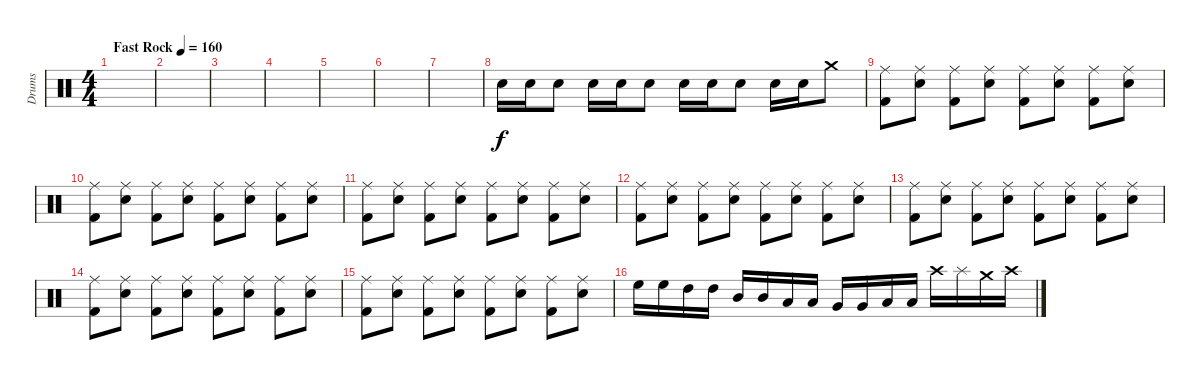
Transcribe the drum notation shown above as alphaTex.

\track ("Drums" "Drums") {instrument percussion}
\staff {score}
\articulation defaults
\ts (4 4)
\tempo (160 "Fast Rock")
\clef neutral
\ks c
|
|
|
|
|
|
|
"Electric Snare (hit)".16 "Electric Snare (hit)".16 "Electric Snare (hit)".8 "Electric Snare (hit)".16 "Electric Snare (hit)".16 "Electric Snare (hit)".8 "Electric Snare (hit)".16 "Electric Snare (hit)".16 "Electric Snare (hit)".8 "Electric Snare (hit)".16 "Electric Snare (hit)".16 "Crash medium (hit)".8 |
("Ride (middle)" "Kick (hit) 2").8 ("Ride (middle)" "Electric Snare (hit)").8 ("Ride (middle)" "Kick (hit) 2").8 ("Ride (middle)" "Electric Snare (hit)").8 ("Ride (middle)" "Kick (hit) 2").8 ("Ride (middle)" "Electric Snare (hit)").8 ("Ride (middle)" "Kick (hit) 2").8 ("Ride (middle)" "Electric Snare (hit)").8 |
("Ride (middle)" "Kick (hit) 2").8 ("Ride (middle)" "Electric Snare (hit)").8 ("Ride (middle)" "Kick (hit) 2").8 ("Ride (middle)" "Electric Snare (hit)").8 ("Ride (middle)" "Kick (hit) 2").8 ("Ride (middle)" "Electric Snare (hit)").8 ("Ride (middle)" "Kick (hit) 2").8 ("Ride (middle)" "Electric Snare (hit)").8 |
("Ride (middle)" "Kick (hit) 2").8 ("Ride (middle)" "Electric Snare (hit)").8 ("Ride (middle)" "Kick (hit) 2").8 ("Ride (middle)" "Electric Snare (hit)").8 ("Ride (middle)" "Kick (hit) 2").8 ("Ride (middle)" "Electric Snare (hit)").8 ("Ride (middle)" "Kick (hit) 2").8 ("Ride (middle)" "Electric Snare (hit)").8 |
("Ride (middle)" "Kick (hit) 2").8 ("Ride (middle)" "Electric Snare (hit)").8 ("Ride (middle)" "Kick (hit) 2").8 ("Ride (middle)" "Electric Snare (hit)").8 ("Ride (middle)" "Kick (hit) 2").8 ("Ride (middle)" "Electric Snare (hit)").8 ("Ride (middle)" "Kick (hit) 2").8 ("Ride (middle)" "Electric Snare (hit)").8 |
("Ride (middle)" "Kick (hit) 2").8 ("Ride (middle)" "Electric Snare (hit)").8 ("Ride (middle)" "Kick (hit) 2").8 ("Ride (middle)" "Electric Snare (hit)").8 ("Ride (middle)" "Kick (hit) 2").8 ("Ride (middle)" "Electric Snare (hit)").8 ("Ride (middle)" "Kick (hit) 2").8 ("Ride (middle)" "Electric Snare (hit)").8 |
("Ride (middle)" "Kick (hit) 2").8 ("Ride (middle)" "Electric Snare (hit)").8 ("Ride (middle)" "Kick (hit) 2").8 ("Ride (middle)" "Electric Snare (hit)").8 ("Ride (middle)" "Kick (hit) 2").8 ("Ride (middle)" "Electric Snare (hit)").8 ("Ride (middle)" "Kick (hit) 2").8 ("Ride (middle)" "Electric Snare (hit)").8 |
("Ride (middle)" "Kick (hit) 2").8 ("Ride (middle)" "Electric Snare (hit)").8 ("Ride (middle)" "Kick (hit) 2").8 ("Ride (middle)" "Electric Snare (hit)").8 ("Ride (middle)" "Kick (hit) 2").8 ("Ride (middle)" "Electric Snare (hit)").8 ("Ride (middle)" "Kick (hit) 2").8 ("Ride (middle)" "Electric Snare (hit)").8 |
"High Floor Tom (hit)".16 "High Floor Tom (hit)".16 "High Tom (hit)".16 "High Tom (hit)".16 "Mid Tom (hit)".16 "Mid Tom (hit)".16 "Low Tom (hit)".16 "Low Tom (hit)".16 "Very Low Tom (hit)".16 "Very Low Tom (hit)".16 "Low Floor Tom (hit)".16 "Low Floor Tom (hit)".16 "Crash high (hit)".16 "Splash (hit)".16 "Crash medium (hit)".16 "Crash high (hit)".16
